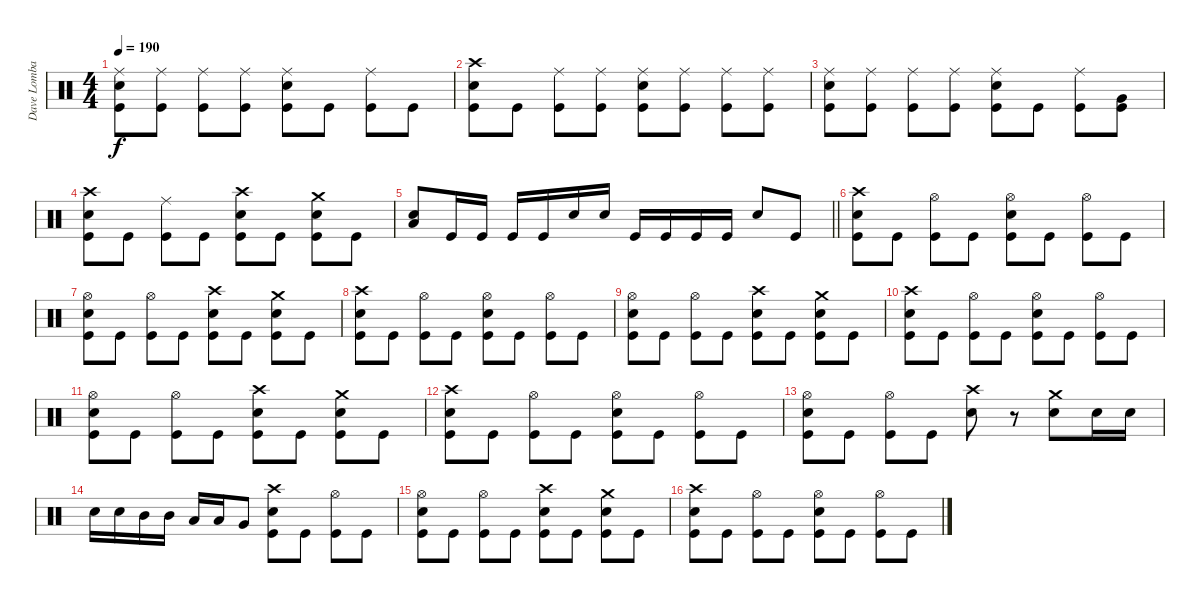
\track ("Dave Lombardo" "Dave Lomba") {instrument percussion}
\staff {score}
\articulation defaults
\ts (4 4)
\tempo 190
\clef neutral
\ks c
("Ride (middle)" "Electric Snare (hit)" "Kick (hit)").8{dy f} ("Ride (middle)" "Kick (hit)").8 ("Ride (middle)" "Kick (hit)").8 ("Ride (middle)" "Kick (hit)").8 ("Ride (middle)" "Electric Snare (hit)" "Kick (hit)").8 "Kick (hit)".8 ("Ride (middle)" "Kick (hit)").8 "Kick (hit)".8 |
("Crash high (hit)" "Electric Snare (hit)" "Kick (hit)").8 "Kick (hit)".8 ("Ride (middle)" "Kick (hit)").8 ("Ride (middle)" "Kick (hit)").8 ("Ride (middle)" "Electric Snare (hit)" "Kick (hit)").8 ("Ride (middle)" "Kick (hit)").8 ("Ride (middle)" "Kick (hit)").8 ("Ride (middle)" "Kick (hit)").8 |
("Ride (middle)" "Electric Snare (hit)" "Kick (hit)").8 ("Ride (middle)" "Kick (hit)").8 ("Ride (middle)" "Kick (hit)").8 ("Ride (middle)" "Kick (hit)").8 ("Ride (middle)" "Electric Snare (hit)" "Kick (hit)").8 "Kick (hit)".8 ("Ride (middle)" "Kick (hit)").8 ("Very Low Tom (hit)" "Kick (hit)").8 |
("Crash high (hit)" "Electric Snare (hit)" "Kick (hit)").8 "Kick (hit)".8 ("Ride (middle)" "Kick (hit)").8 "Kick (hit)".8 ("Crash high (hit)" "Electric Snare (hit)" "Kick (hit)").8 "Kick (hit)".8 ("Crash medium (hit)" "Electric Snare (hit)" "Kick (hit)").8 "Kick (hit)".8 |
\barLineRight lightlight
("Low Floor Tom (hit)" "Electric Snare (hit)").8 "Kick (hit)".16 "Kick (hit)".16 "Kick (hit)".16 "Kick (hit)".16 "Electric Snare (hit)".16 "Electric Snare (hit)".16 "Kick (hit)".16 "Kick (hit)".16 "Kick (hit)".16 "Kick (hit)".16 "Electric Snare (hit)".8 "Kick (hit)".8 |
\section ("" "")
("Crash high (hit)" "Electric Snare (hit)" "Kick (hit)").8 "Kick (hit)".8 ("Hi-Hat (open)" "Kick (hit)").8 "Kick (hit)".8 ("Hi-Hat (open)" "Electric Snare (hit)" "Kick (hit)").8 "Kick (hit)".8 ("Hi-Hat (open)" "Kick (hit)").8 "Kick (hit)".8 |
("Hi-Hat (open)" "Electric Snare (hit)" "Kick (hit)").8 "Kick (hit)".8 ("Hi-Hat (open)" "Kick (hit)").8 "Kick (hit)".8 ("Crash high (hit)" "Electric Snare (hit)" "Kick (hit)").8 "Kick (hit)".8 ("Crash medium (hit)" "Electric Snare (hit)" "Kick (hit)").8 "Kick (hit)".8 |
("Crash high (hit)" "Electric Snare (hit)" "Kick (hit)").8 "Kick (hit)".8 ("Hi-Hat (open)" "Kick (hit)").8 "Kick (hit)".8 ("Hi-Hat (open)" "Electric Snare (hit)" "Kick (hit)").8 "Kick (hit)".8 ("Hi-Hat (open)" "Kick (hit)").8 "Kick (hit)".8 |
("Hi-Hat (open)" "Electric Snare (hit)" "Kick (hit)").8 "Kick (hit)".8 ("Hi-Hat (open)" "Kick (hit)").8 "Kick (hit)".8 ("Crash high (hit)" "Electric Snare (hit)" "Kick (hit)").8 "Kick (hit)".8 ("Crash medium (hit)" "Electric Snare (hit)" "Kick (hit)").8 "Kick (hit)".8 |
("Crash high (hit)" "Electric Snare (hit)" "Kick (hit)").8 "Kick (hit)".8 ("Hi-Hat (open)" "Kick (hit)").8 "Kick (hit)".8 ("Hi-Hat (open)" "Electric Snare (hit)" "Kick (hit)").8 "Kick (hit)".8 ("Hi-Hat (open)" "Kick (hit)").8 "Kick (hit)".8 |
("Hi-Hat (open)" "Electric Snare (hit)" "Kick (hit)").8 "Kick (hit)".8 ("Hi-Hat (open)" "Kick (hit)").8 "Kick (hit)".8 ("Crash high (hit)" "Electric Snare (hit)" "Kick (hit)").8 "Kick (hit)".8 ("Crash medium (hit)" "Electric Snare (hit)" "Kick (hit)").8 "Kick (hit)".8 |
("Crash high (hit)" "Electric Snare (hit)" "Kick (hit)").8 "Kick (hit)".8 ("Hi-Hat (open)" "Kick (hit)").8 "Kick (hit)".8 ("Hi-Hat (open)" "Electric Snare (hit)" "Kick (hit)").8 "Kick (hit)".8 ("Hi-Hat (open)" "Kick (hit)").8 "Kick (hit)".8 |
("Hi-Hat (open)" "Electric Snare (hit)" "Kick (hit)").8 "Kick (hit)".8 ("Hi-Hat (open)" "Kick (hit)").8 "Kick (hit)".8 ("Crash high (hit)" "Electric Snare (hit)").8 r.8 ("Crash medium (hit)" "Electric Snare (hit)").8 "Electric Snare (hit)".16 "Electric Snare (hit)".16 |
"Electric Snare (hit)".16 "Electric Snare (hit)".16 "Mid Tom (hit)".16 "Mid Tom (hit)".16 "Low Tom (hit)".16 "Low Tom (hit)".16 "Very Low Tom (hit)".8 ("Crash high (hit)" "Electric Snare (hit)" "Kick (hit)").8 "Kick (hit)".8 ("Hi-Hat (open)" "Kick (hit)").8 "Kick (hit)".8 |
("Hi-Hat (open)" "Electric Snare (hit)" "Kick (hit)").8 "Kick (hit)".8 ("Hi-Hat (open)" "Kick (hit)").8 "Kick (hit)".8 ("Crash high (hit)" "Electric Snare (hit)" "Kick (hit)").8 "Kick (hit)".8 ("Crash medium (hit)" "Electric Snare (hit)" "Kick (hit)").8 "Kick (hit)".8 |
("Crash high (hit)" "Electric Snare (hit)" "Kick (hit)").8 "Kick (hit)".8 ("Hi-Hat (open)" "Kick (hit)").8 "Kick (hit)".8 ("Hi-Hat (open)" "Electric Snare (hit)" "Kick (hit)").8 "Kick (hit)".8 ("Hi-Hat (open)" "Kick (hit)").8 "Kick (hit)".8
